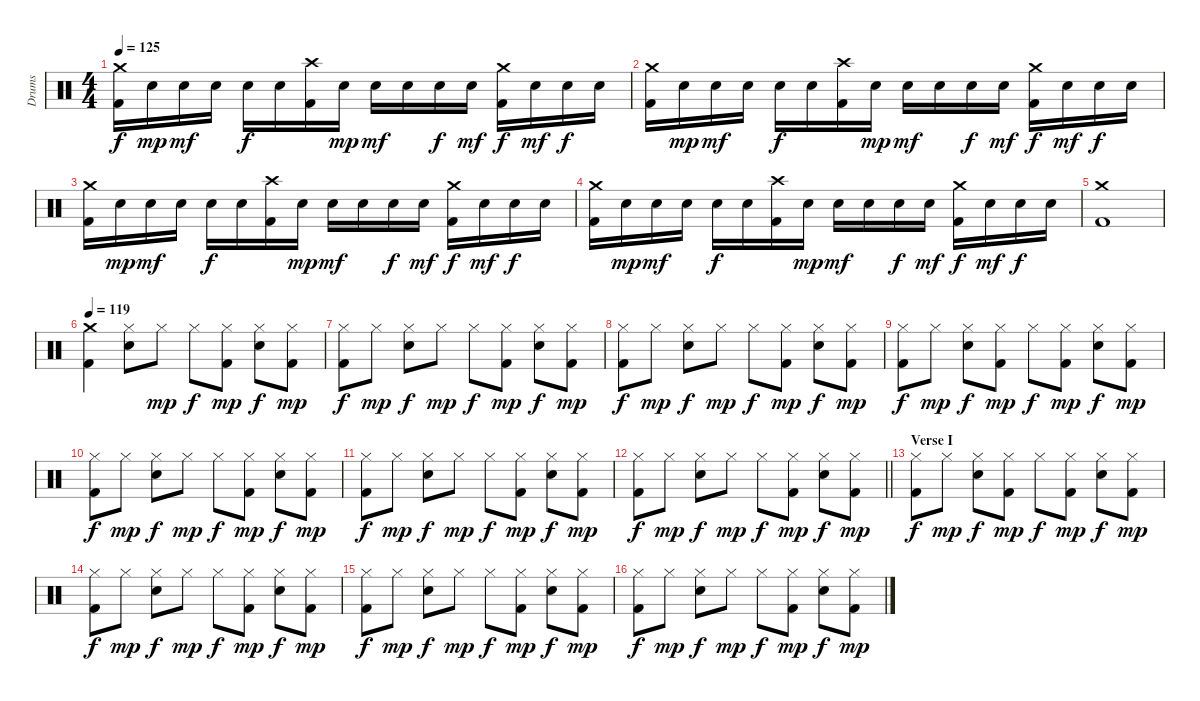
\track ("Drums" "Drums") {instrument percussion}
\staff {score}
\articulation defaults
\ts (4 4)
\tempo 125
\clef neutral
\ks c
("Crash medium (hit)" "Kick (hit) 2").16{dy f} "Electric Snare (hit)".16{dy mp} "Electric Snare (hit)".16{dy mf} "Electric Snare (hit)".16 "Electric Snare (hit)".16{dy f} "Electric Snare (hit)".16 ("Crash high (hit)" "Kick (hit) 2").16 "Electric Snare (hit)".16{dy mp} "Electric Snare (hit)".16{dy mf} "Electric Snare (hit)".16 "Electric Snare (hit)".16{dy f} "Electric Snare (hit)".16{dy mf} ("Crash medium (hit)" "Kick (hit) 2").16{dy f} "Electric Snare (hit)".16{dy mf} "Electric Snare (hit)".16{dy f} "Electric Snare (hit)".16 |
("Crash medium (hit)" "Kick (hit) 2").16 "Electric Snare (hit)".16{dy mp} "Electric Snare (hit)".16{dy mf} "Electric Snare (hit)".16 "Electric Snare (hit)".16{dy f} "Electric Snare (hit)".16 ("Crash high (hit)" "Kick (hit) 2").16 "Electric Snare (hit)".16{dy mp} "Electric Snare (hit)".16{dy mf} "Electric Snare (hit)".16 "Electric Snare (hit)".16{dy f} "Electric Snare (hit)".16{dy mf} ("Crash medium (hit)" "Kick (hit) 2").16{dy f} "Electric Snare (hit)".16{dy mf} "Electric Snare (hit)".16{dy f} "Electric Snare (hit)".16 |
("Crash medium (hit)" "Kick (hit) 2").16 "Electric Snare (hit)".16{dy mp} "Electric Snare (hit)".16{dy mf} "Electric Snare (hit)".16 "Electric Snare (hit)".16{dy f} "Electric Snare (hit)".16 ("Crash high (hit)" "Kick (hit) 2").16 "Electric Snare (hit)".16{dy mp} "Electric Snare (hit)".16{dy mf} "Electric Snare (hit)".16 "Electric Snare (hit)".16{dy f} "Electric Snare (hit)".16{dy mf} ("Crash medium (hit)" "Kick (hit) 2").16{dy f} "Electric Snare (hit)".16{dy mf} "Electric Snare (hit)".16{dy f} "Electric Snare (hit)".16 |
("Crash medium (hit)" "Kick (hit) 2").16 "Electric Snare (hit)".16{dy mp} "Electric Snare (hit)".16{dy mf} "Electric Snare (hit)".16 "Electric Snare (hit)".16{dy f} "Electric Snare (hit)".16 ("Crash high (hit)" "Kick (hit) 2").16 "Electric Snare (hit)".16{dy mp} "Electric Snare (hit)".16{dy mf} "Electric Snare (hit)".16 "Electric Snare (hit)".16{dy f} "Electric Snare (hit)".16{dy mf} ("Crash medium (hit)" "Kick (hit) 2").16{dy f} "Electric Snare (hit)".16{dy mf} "Electric Snare (hit)".16{dy f} "Electric Snare (hit)".16 |
("Crash medium (hit)" "Kick (hit) 2").1 |
\tempo 119
("Crash medium (hit)" "Kick (hit) 2").4 ("Hi-Hat (closed)" "Electric Snare (hit)").8 "Hi-Hat (closed)".8{dy mp} "Hi-Hat (closed)".8{dy f} ("Hi-Hat (closed)" "Kick (hit) 2").8{dy mp} ("Hi-Hat (closed)" "Electric Snare (hit)").8{dy f} ("Hi-Hat (closed)" "Kick (hit) 2").8{dy mp} |
("Hi-Hat (closed)" "Kick (hit) 2").8{dy f} "Hi-Hat (closed)".8{dy mp} ("Hi-Hat (closed)" "Electric Snare (hit)").8{dy f} "Hi-Hat (closed)".8{dy mp} "Hi-Hat (closed)".8{dy f} ("Hi-Hat (closed)" "Kick (hit) 2").8{dy mp} ("Hi-Hat (closed)" "Electric Snare (hit)").8{dy f} ("Hi-Hat (closed)" "Kick (hit) 2").8{dy mp} |
("Hi-Hat (closed)" "Kick (hit) 2").8{dy f} "Hi-Hat (closed)".8{dy mp} ("Hi-Hat (closed)" "Electric Snare (hit)").8{dy f} "Hi-Hat (closed)".8{dy mp} "Hi-Hat (closed)".8{dy f} ("Hi-Hat (closed)" "Kick (hit) 2").8{dy mp} ("Hi-Hat (closed)" "Electric Snare (hit)").8{dy f} ("Hi-Hat (closed)" "Kick (hit) 2").8{dy mp} |
("Hi-Hat (closed)" "Kick (hit) 2").8{dy f} "Hi-Hat (closed)".8{dy mp} ("Hi-Hat (closed)" "Electric Snare (hit)").8{dy f} ("Hi-Hat (closed)" "Kick (hit) 2").8{dy mp} "Hi-Hat (closed)".8{dy f} ("Hi-Hat (closed)" "Kick (hit) 2").8{dy mp} ("Hi-Hat (closed)" "Electric Snare (hit)").8{dy f} ("Hi-Hat (closed)" "Kick (hit) 2").8{dy mp} |
("Hi-Hat (closed)" "Kick (hit) 2").8{dy f} "Hi-Hat (closed)".8{dy mp} ("Hi-Hat (closed)" "Electric Snare (hit)").8{dy f} "Hi-Hat (closed)".8{dy mp} "Hi-Hat (closed)".8{dy f} ("Hi-Hat (closed)" "Kick (hit) 2").8{dy mp} ("Hi-Hat (closed)" "Electric Snare (hit)").8{dy f} ("Hi-Hat (closed)" "Kick (hit) 2").8{dy mp} |
("Hi-Hat (closed)" "Kick (hit) 2").8{dy f} "Hi-Hat (closed)".8{dy mp} ("Hi-Hat (closed)" "Electric Snare (hit)").8{dy f} "Hi-Hat (closed)".8{dy mp} "Hi-Hat (closed)".8{dy f} ("Hi-Hat (closed)" "Kick (hit) 2").8{dy mp} ("Hi-Hat (closed)" "Electric Snare (hit)").8{dy f} ("Hi-Hat (closed)" "Kick (hit) 2").8{dy mp} |
\barLineRight lightlight
("Hi-Hat (closed)" "Kick (hit) 2").8{dy f} "Hi-Hat (closed)".8{dy mp} ("Hi-Hat (closed)" "Electric Snare (hit)").8{dy f} "Hi-Hat (closed)".8{dy mp} "Hi-Hat (closed)".8{dy f} ("Hi-Hat (closed)" "Kick (hit) 2").8{dy mp} ("Hi-Hat (closed)" "Electric Snare (hit)").8{dy f} ("Hi-Hat (closed)" "Kick (hit) 2").8{dy mp} |
\section ("" "Verse I")
("Hi-Hat (closed)" "Kick (hit) 2").8{dy f} "Hi-Hat (closed)".8{dy mp} ("Hi-Hat (closed)" "Electric Snare (hit)").8{dy f} ("Hi-Hat (closed)" "Kick (hit) 2").8{dy mp} "Hi-Hat (closed)".8{dy f} ("Hi-Hat (closed)" "Kick (hit) 2").8{dy mp} ("Hi-Hat (closed)" "Electric Snare (hit)").8{dy f} ("Hi-Hat (closed)" "Kick (hit) 2").8{dy mp} |
("Hi-Hat (closed)" "Kick (hit) 2").8{dy f} "Hi-Hat (closed)".8{dy mp} ("Hi-Hat (closed)" "Electric Snare (hit)").8{dy f} "Hi-Hat (closed)".8{dy mp} "Hi-Hat (closed)".8{dy f} ("Hi-Hat (closed)" "Kick (hit) 2").8{dy mp} ("Hi-Hat (closed)" "Electric Snare (hit)").8{dy f} ("Hi-Hat (closed)" "Kick (hit) 2").8{dy mp} |
("Hi-Hat (closed)" "Kick (hit) 2").8{dy f} "Hi-Hat (closed)".8{dy mp} ("Hi-Hat (closed)" "Electric Snare (hit)").8{dy f} "Hi-Hat (closed)".8{dy mp} "Hi-Hat (closed)".8{dy f} ("Hi-Hat (closed)" "Kick (hit) 2").8{dy mp} ("Hi-Hat (closed)" "Electric Snare (hit)").8{dy f} ("Hi-Hat (closed)" "Kick (hit) 2").8{dy mp} |
("Hi-Hat (closed)" "Kick (hit) 2").8{dy f} "Hi-Hat (closed)".8{dy mp} ("Hi-Hat (closed)" "Electric Snare (hit)").8{dy f} "Hi-Hat (closed)".8{dy mp} "Hi-Hat (closed)".8{dy f} ("Hi-Hat (closed)" "Kick (hit) 2").8{dy mp} ("Hi-Hat (closed)" "Electric Snare (hit)").8{dy f} ("Hi-Hat (closed)" "Kick (hit) 2").8{dy mp}
